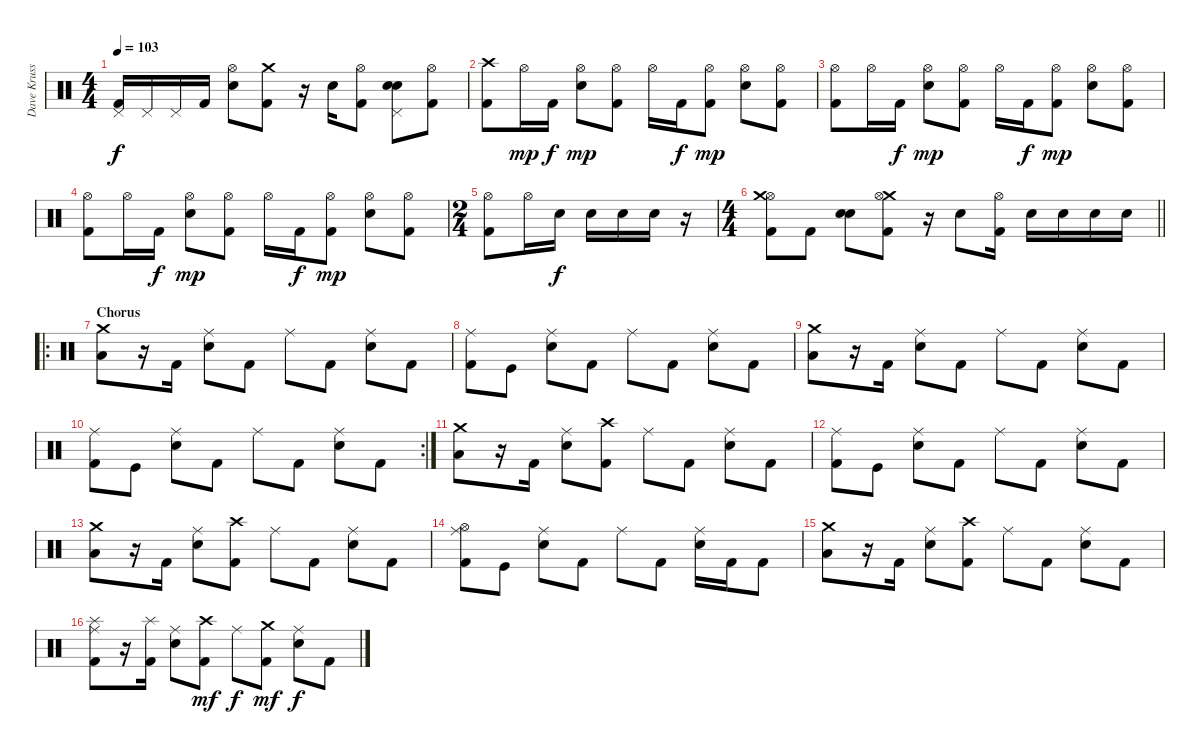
\track ("Dave Krussen" "Dave Kruss") {instrument percussion}
\staff {score}
\articulation defaults
\ts (4 4)
\tempo 103
\clef neutral
\ks c
("Pedal Hi-Hat (hit)" "Kick (hit) 2").16{dy f} "Pedal Hi-Hat (hit)".16 "Pedal Hi-Hat (hit)".16 "Kick (hit) 2".16 ("Hi-Hat (open)" "Electric Snare (hit)").8 ("Crash medium (hit)" "Kick (hit) 2").8 r.16 "Electric Snare (hit)".16 ("Hi-Hat (open)" "Kick (hit) 2").8 ("Pedal Hi-Hat (hit)" "Electric Snare (hit)" "Electric Snare (hit)").8{bd 120} ("Hi-Hat (open)" "Kick (hit) 2").8 |
("Crash high (hit)" "Kick (hit) 2").8 "Hi-Hat (open)".16{dy mp} "Kick (hit) 2".16{dy f} ("Hi-Hat (open)" "Electric Snare (hit)").8{dy mp} ("Hi-Hat (open)" "Kick (hit) 2").8 "Hi-Hat (open)".16 "Kick (hit) 2".16{dy f} ("Hi-Hat (open)" "Kick (hit) 2").8{dy mp} ("Hi-Hat (open)" "Electric Snare (hit)").8 ("Hi-Hat (open)" "Kick (hit) 2").8 |
("Hi-Hat (open)" "Kick (hit) 2").8 "Hi-Hat (open)".16 "Kick (hit) 2".16{dy f} ("Hi-Hat (open)" "Electric Snare (hit)").8{dy mp} ("Hi-Hat (open)" "Kick (hit) 2").8 "Hi-Hat (open)".16 "Kick (hit) 2".16{dy f} ("Hi-Hat (open)" "Kick (hit) 2").8{dy mp} ("Hi-Hat (open)" "Electric Snare (hit)").8 ("Hi-Hat (open)" "Kick (hit) 2").8 |
("Hi-Hat (open)" "Kick (hit) 2").8 "Hi-Hat (open)".16 "Kick (hit) 2".16{dy f} ("Hi-Hat (open)" "Electric Snare (hit)").8{dy mp} ("Hi-Hat (open)" "Kick (hit) 2").8 "Hi-Hat (open)".16 "Kick (hit) 2".16{dy f} ("Hi-Hat (open)" "Kick (hit) 2").8{dy mp} ("Hi-Hat (open)" "Electric Snare (hit)").8 ("Hi-Hat (open)" "Kick (hit) 2").8 |
\ts (2 4)
("Hi-Hat (open)" "Kick (hit) 2").8 "Hi-Hat (open)".16 "Electric Snare (hit)".16{dy f} "Electric Snare (hit)".16 "Electric Snare (hit)".16 "Electric Snare (hit)".16 r.16 |
\ts (4 4)
\barLineRight lightlight
("Hi-Hat (open)" "Crash medium (hit)" "Kick (hit) 2").8 "Kick (hit) 2".8 ("Snare (hit) 2" "Electric Snare (hit)").8{bu 120} ("Crash medium (hit)" "Hi-Hat (open)" "Kick (hit) 2").8 r.16 "Electric Snare (hit)".8 ("Hi-Hat (open)" "Kick (hit) 2").16 "Electric Snare (hit)".16 "Electric Snare (hit)".16 "Electric Snare (hit)".16 "Electric Snare (hit)".16 |
\ro
\section ("" "Chorus")
("Crash medium (hit)" "Low Floor Tom (hit)").8 r.16 "Kick (hit) 2".16 ("Ride (middle)" "Electric Snare (hit)").8 "Kick (hit) 2".8 "Ride (middle)".8 "Kick (hit) 2".8 ("Ride (middle)" "Electric Snare (hit)").8 "Kick (hit) 2".8 |
("Ride (middle)" "Kick (hit) 2").8 "Kick (hit)".8 ("Ride (middle)" "Electric Snare (hit)").8 "Kick (hit) 2".8 "Ride (middle)".8 "Kick (hit) 2".8 ("Ride (middle)" "Electric Snare (hit)").8 "Kick (hit) 2".8 |
("Crash medium (hit)" "Low Floor Tom (hit)").8 r.16 "Kick (hit) 2".16 ("Ride (middle)" "Electric Snare (hit)").8 "Kick (hit) 2".8 "Ride (middle)".8 "Kick (hit) 2".8 ("Ride (middle)" "Electric Snare (hit)").8 "Kick (hit) 2".8 |
\rc 2
("Ride (middle)" "Kick (hit) 2").8 "Kick (hit)".8 ("Ride (middle)" "Electric Snare (hit)").8 "Kick (hit) 2".8 "Ride (middle)".8 "Kick (hit) 2".8 ("Ride (middle)" "Electric Snare (hit)").8 "Kick (hit) 2".8 |
("Crash medium (hit)" "Low Floor Tom (hit)").8 r.16 "Kick (hit) 2".16 ("Ride (middle)" "Electric Snare (hit)").8 ("Crash high (hit)" "Kick (hit) 2").8 "Ride (middle)".8 "Kick (hit) 2".8 ("Ride (middle)" "Electric Snare (hit)").8 "Kick (hit) 2".8 |
("Ride (middle)" "Kick (hit) 2").8 "Kick (hit)".8 ("Ride (middle)" "Electric Snare (hit)").8 "Kick (hit) 2".8 "Ride (middle)".8 "Kick (hit) 2".8 ("Ride (middle)" "Electric Snare (hit)").8 "Kick (hit) 2".8 |
("Crash medium (hit)" "Low Floor Tom (hit)").8 r.16 "Kick (hit) 2".16 ("Ride (middle)" "Electric Snare (hit)").8 ("Crash high (hit)" "Kick (hit) 2").8 "Ride (middle)".8 "Kick (hit) 2".8 ("Ride (middle)" "Electric Snare (hit)").8 "Kick (hit) 2".8 |
("Ride (middle)" "Hi-Hat (open)" "Kick (hit) 2").8 "Kick (hit)".8 ("Ride (middle)" "Electric Snare (hit)").8 "Kick (hit) 2".8 "Ride (middle)".8 "Kick (hit) 2".8 ("Ride (middle)" "Electric Snare (hit)").16 "Kick (hit) 2".16 "Kick (hit) 2".8 |
("Crash medium (hit)" "Low Floor Tom (hit)").8 r.16 "Kick (hit) 2".16 ("Ride (middle)" "Electric Snare (hit)").8 ("Crash high (hit)" "Kick (hit) 2").8 "Ride (middle)".8 "Kick (hit) 2".8 ("Ride (middle)" "Electric Snare (hit)").8 "Kick (hit) 2".8 |
("Ride (middle)" "Splash (hit)" "Kick (hit) 2").8 r.16 ("Splash (hit)" "Kick (hit) 2").16 ("Ride (middle)" "Electric Snare (hit)").8 ("Crash high (hit)" "Kick (hit) 2").8{dy mf} "Ride (middle)".8{dy f} ("Crash medium (hit)" "Kick (hit) 2").8{dy mf} ("Ride (middle)" "Electric Snare (hit)").8{dy f} "Kick (hit) 2".8
